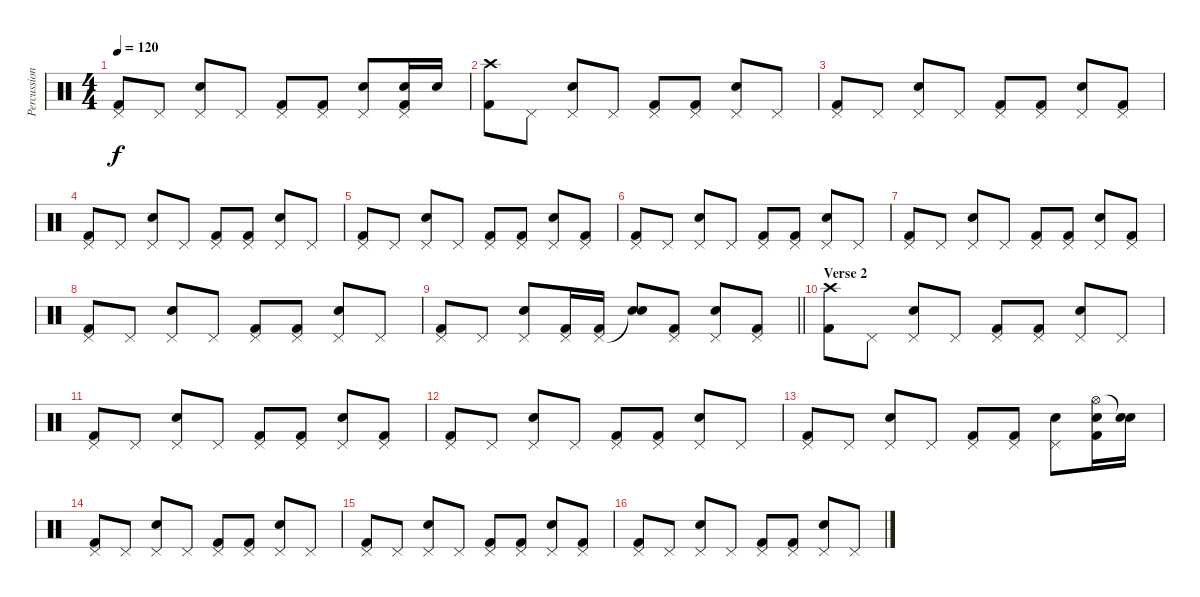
\track ("Percussion" "Percussion") {instrument percussion}
\staff {score}
\articulation defaults
\ts (4 4)
\tempo 120
\clef neutral
\ks c
("Pedal Hi-Hat (hit)" "Kick (hit) 2").8{dy f} "Pedal Hi-Hat (hit)".8 ("Pedal Hi-Hat (hit)" "Snare (hit) 2").8 "Pedal Hi-Hat (hit)".8 ("Pedal Hi-Hat (hit)" "Kick (hit) 2").8 ("Pedal Hi-Hat (hit)" "Kick (hit) 2").8 ("Pedal Hi-Hat (hit)" "Snare (hit) 2").8 ("Pedal Hi-Hat (hit)" "Snare (hit) 2" "Kick (hit) 2").16 "Snare (hit) 2".16 |
("Crash high (hit)" "Kick (hit) 2").8 "Pedal Hi-Hat (hit)".8 ("Pedal Hi-Hat (hit)" "Snare (hit) 2").8 "Pedal Hi-Hat (hit)".8 ("Pedal Hi-Hat (hit)" "Kick (hit) 2").8 ("Pedal Hi-Hat (hit)" "Kick (hit) 2").8 ("Pedal Hi-Hat (hit)" "Snare (hit) 2").8 "Pedal Hi-Hat (hit)".8 |
("Pedal Hi-Hat (hit)" "Kick (hit) 2").8 "Pedal Hi-Hat (hit)".8 ("Pedal Hi-Hat (hit)" "Snare (hit) 2").8 "Pedal Hi-Hat (hit)".8 ("Pedal Hi-Hat (hit)" "Kick (hit) 2").8 ("Pedal Hi-Hat (hit)" "Kick (hit) 2").8 ("Pedal Hi-Hat (hit)" "Snare (hit) 2").8 ("Pedal Hi-Hat (hit)" "Kick (hit) 2").8 |
("Pedal Hi-Hat (hit)" "Kick (hit) 2").8 "Pedal Hi-Hat (hit)".8 ("Pedal Hi-Hat (hit)" "Snare (hit) 2").8 "Pedal Hi-Hat (hit)".8 ("Pedal Hi-Hat (hit)" "Kick (hit) 2").8 ("Pedal Hi-Hat (hit)" "Kick (hit) 2").8 ("Pedal Hi-Hat (hit)" "Snare (hit) 2").8 "Pedal Hi-Hat (hit)".8 |
("Pedal Hi-Hat (hit)" "Kick (hit) 2").8 "Pedal Hi-Hat (hit)".8 ("Pedal Hi-Hat (hit)" "Snare (hit) 2").8 "Pedal Hi-Hat (hit)".8 ("Pedal Hi-Hat (hit)" "Kick (hit) 2").8 ("Pedal Hi-Hat (hit)" "Kick (hit) 2").8 ("Pedal Hi-Hat (hit)" "Snare (hit) 2").8 ("Pedal Hi-Hat (hit)" "Kick (hit) 2").8 |
("Pedal Hi-Hat (hit)" "Kick (hit) 2").8 "Pedal Hi-Hat (hit)".8 ("Pedal Hi-Hat (hit)" "Snare (hit) 2").8 "Pedal Hi-Hat (hit)".8 ("Pedal Hi-Hat (hit)" "Kick (hit) 2").8 ("Pedal Hi-Hat (hit)" "Kick (hit) 2").8 ("Pedal Hi-Hat (hit)" "Snare (hit) 2").8 "Pedal Hi-Hat (hit)".8 |
("Pedal Hi-Hat (hit)" "Kick (hit) 2").8 "Pedal Hi-Hat (hit)".8 ("Pedal Hi-Hat (hit)" "Snare (hit) 2").8 "Pedal Hi-Hat (hit)".8 ("Pedal Hi-Hat (hit)" "Kick (hit) 2").8 ("Pedal Hi-Hat (hit)" "Kick (hit) 2").8 ("Pedal Hi-Hat (hit)" "Snare (hit) 2").8 ("Pedal Hi-Hat (hit)" "Kick (hit) 2").8 |
("Pedal Hi-Hat (hit)" "Kick (hit) 2").8 "Pedal Hi-Hat (hit)".8 ("Pedal Hi-Hat (hit)" "Snare (hit) 2").8 "Pedal Hi-Hat (hit)".8 ("Pedal Hi-Hat (hit)" "Kick (hit) 2").8 ("Pedal Hi-Hat (hit)" "Kick (hit) 2").8 ("Pedal Hi-Hat (hit)" "Snare (hit) 2").8 "Pedal Hi-Hat (hit)".8 |
\barLineRight lightlight
("Pedal Hi-Hat (hit)" "Kick (hit) 2").8 "Pedal Hi-Hat (hit)".8 ("Pedal Hi-Hat (hit)" "Snare (hit) 2").8 ("Pedal Hi-Hat (hit)" "Kick (hit) 2").16 ("Pedal Hi-Hat (hit)" "Kick (hit) 2").16 ("Snare (hit)"{t} "Snare (hit) 2").8 ("Pedal Hi-Hat (hit)" "Kick (hit) 2").8 ("Pedal Hi-Hat (hit)" "Snare (hit) 2").8 ("Pedal Hi-Hat (hit)" "Kick (hit) 2").8 |
\section ("" "Verse 2")
("Crash high (hit)" "Kick (hit) 2").8 "Pedal Hi-Hat (hit)".8 ("Pedal Hi-Hat (hit)" "Snare (hit) 2").8 "Pedal Hi-Hat (hit)".8 ("Pedal Hi-Hat (hit)" "Kick (hit) 2").8 ("Pedal Hi-Hat (hit)" "Kick (hit) 2").8 ("Pedal Hi-Hat (hit)" "Snare (hit) 2").8 "Pedal Hi-Hat (hit)".8 |
("Pedal Hi-Hat (hit)" "Kick (hit) 2").8 "Pedal Hi-Hat (hit)".8 ("Pedal Hi-Hat (hit)" "Snare (hit) 2").8 "Pedal Hi-Hat (hit)".8 ("Pedal Hi-Hat (hit)" "Kick (hit) 2").8 ("Pedal Hi-Hat (hit)" "Kick (hit) 2").8 ("Pedal Hi-Hat (hit)" "Snare (hit) 2").8 ("Pedal Hi-Hat (hit)" "Kick (hit) 2").8 |
("Pedal Hi-Hat (hit)" "Kick (hit) 2").8 "Pedal Hi-Hat (hit)".8 ("Pedal Hi-Hat (hit)" "Snare (hit) 2").8 "Pedal Hi-Hat (hit)".8 ("Pedal Hi-Hat (hit)" "Kick (hit) 2").8 ("Pedal Hi-Hat (hit)" "Kick (hit) 2").8 ("Pedal Hi-Hat (hit)" "Snare (hit) 2").8 "Pedal Hi-Hat (hit)".8 |
("Pedal Hi-Hat (hit)" "Kick (hit) 2").8 "Pedal Hi-Hat (hit)".8 ("Pedal Hi-Hat (hit)" "Snare (hit) 2").8 "Pedal Hi-Hat (hit)".8 ("Pedal Hi-Hat (hit)" "Kick (hit) 2").8 ("Pedal Hi-Hat (hit)" "Kick (hit) 2").8 ("Pedal Hi-Hat (hit)" "Snare (hit) 2").8 ("Hi-Hat (open)" "Snare (hit) 2" "Kick (hit) 2").16 ("Snare (hit)"{t} "Snare (hit) 2").16 |
("Pedal Hi-Hat (hit)" "Kick (hit) 2").8 "Pedal Hi-Hat (hit)".8 ("Pedal Hi-Hat (hit)" "Snare (hit) 2").8 "Pedal Hi-Hat (hit)".8 ("Pedal Hi-Hat (hit)" "Kick (hit) 2").8 ("Pedal Hi-Hat (hit)" "Kick (hit) 2").8 ("Pedal Hi-Hat (hit)" "Snare (hit) 2").8 "Pedal Hi-Hat (hit)".8 |
("Pedal Hi-Hat (hit)" "Kick (hit) 2").8 "Pedal Hi-Hat (hit)".8 ("Pedal Hi-Hat (hit)" "Snare (hit) 2").8 "Pedal Hi-Hat (hit)".8 ("Pedal Hi-Hat (hit)" "Kick (hit) 2").8 ("Pedal Hi-Hat (hit)" "Kick (hit) 2").8 ("Pedal Hi-Hat (hit)" "Snare (hit) 2").8 ("Pedal Hi-Hat (hit)" "Kick (hit) 2").8 |
("Pedal Hi-Hat (hit)" "Kick (hit) 2").8 "Pedal Hi-Hat (hit)".8 ("Pedal Hi-Hat (hit)" "Snare (hit) 2").8 "Pedal Hi-Hat (hit)".8 ("Pedal Hi-Hat (hit)" "Kick (hit) 2").8 ("Pedal Hi-Hat (hit)" "Kick (hit) 2").8 ("Pedal Hi-Hat (hit)" "Snare (hit) 2").8 "Pedal Hi-Hat (hit)".8
